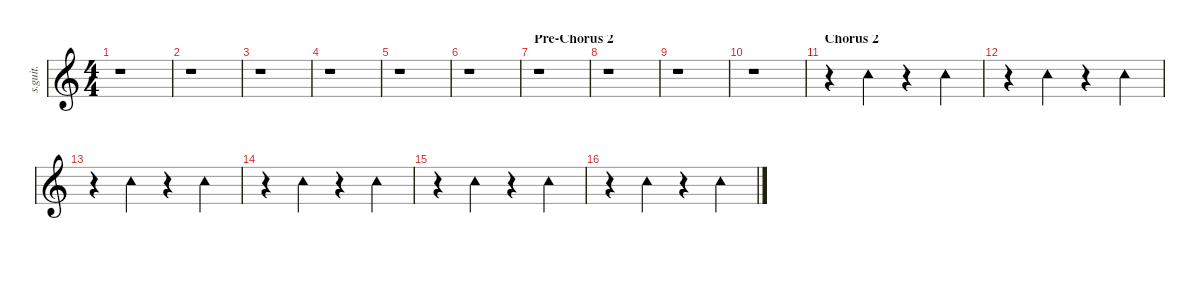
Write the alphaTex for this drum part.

\defaultSystemsLayout 4
\hideDynamics
\bracketExtendMode nobrackets
\track ("Studio" "s.guit.") {instrument percussion}
\staff {score}
\articulation defaults
\ts (4 4)
\tempo (149 hide)
\clef g2
\ks c
r.1{dy mp} |
r.1 |
r.1 |
r.1 |
r.1 |
r.1 |
\section ("" "Pre-Chorus 2")
r.1 |
r.1 |
r.1 |
r.1 |
\section ("" "Chorus 2")
r.4 "Tambourine (hit)".4{lyrics (0 "") lyrics (1 "") lyrics (2 "") lyrics (3 "") lyrics (4 "")} r.4 "Tambourine (hit)".4{lyrics (0 "") lyrics (1 "") lyrics (2 "") lyrics (3 "") lyrics (4 "")} |
r.4 "Tambourine (hit)".4{lyrics (0 "") lyrics (1 "") lyrics (2 "") lyrics (3 "") lyrics (4 "")} r.4 "Tambourine (hit)".4{lyrics (0 "") lyrics (1 "") lyrics (2 "") lyrics (3 "") lyrics (4 "")} |
r.4 "Tambourine (hit)".4{lyrics (0 "") lyrics (1 "") lyrics (2 "") lyrics (3 "") lyrics (4 "")} r.4 "Tambourine (hit)".4{lyrics (0 "") lyrics (1 "") lyrics (2 "") lyrics (3 "") lyrics (4 "")} |
r.4 "Tambourine (hit)".4{lyrics (0 "") lyrics (1 "") lyrics (2 "") lyrics (3 "") lyrics (4 "")} r.4 "Tambourine (hit)".4{lyrics (0 "") lyrics (1 "") lyrics (2 "") lyrics (3 "") lyrics (4 "")} |
r.4 "Tambourine (hit)".4{lyrics (0 "") lyrics (1 "") lyrics (2 "") lyrics (3 "") lyrics (4 "")} r.4 "Tambourine (hit)".4{lyrics (0 "") lyrics (1 "") lyrics (2 "") lyrics (3 "") lyrics (4 "")} |
r.4 "Tambourine (hit)".4{lyrics (0 "") lyrics (1 "") lyrics (2 "") lyrics (3 "") lyrics (4 "")} r.4 "Tambourine (hit)".4{lyrics (0 "") lyrics (1 "") lyrics (2 "") lyrics (3 "") lyrics (4 "")}
